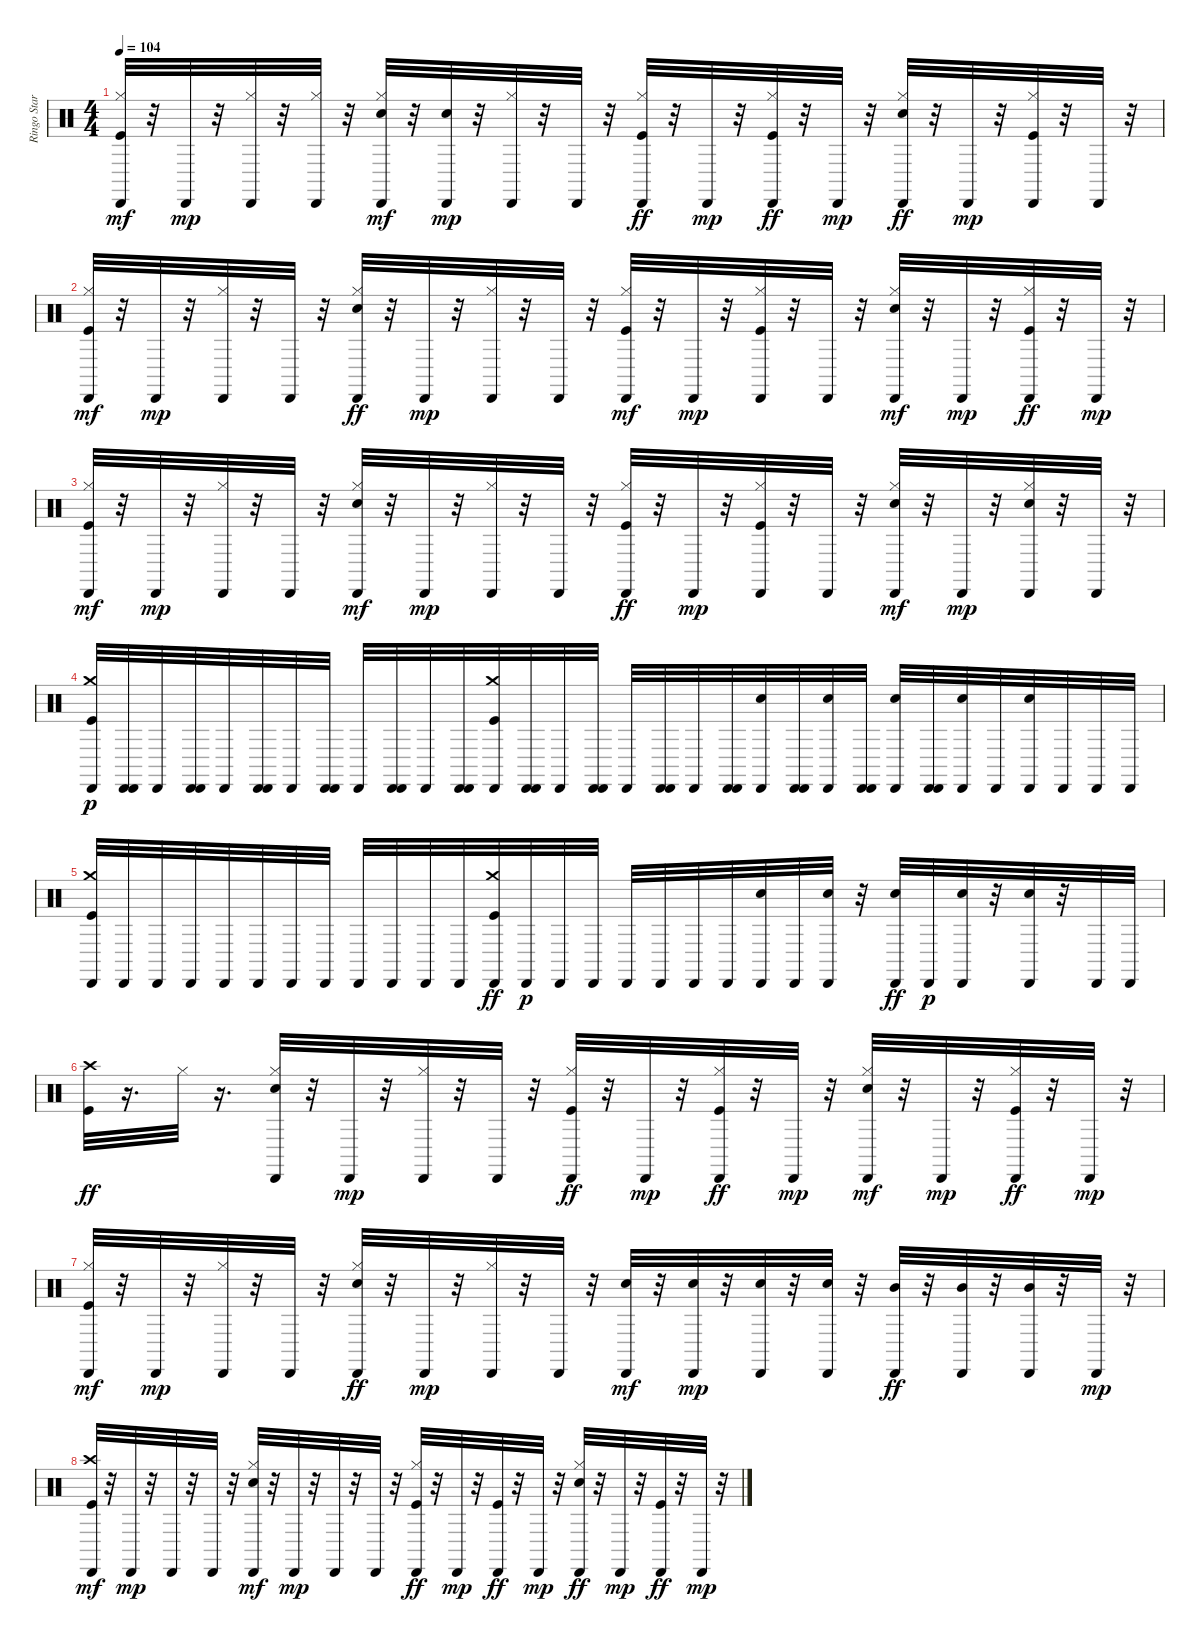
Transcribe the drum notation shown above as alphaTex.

\track ("Ringo Starr - Drums" "Ringo Star") {instrument percussion}
\staff {score}
\articulation defaults
\ts (4 4)
\tempo 104
\clef neutral
\ks c
("Hi-Hat (closed)" "Kick (hit)" "Cabasa (hit)").32{dy mf} r.32 "Cabasa (hit)".32{dy mp} r.32 ("Hi-Hat (closed)" "Cabasa (hit)").32 r.32 ("Hi-Hat (closed)" "Cabasa (hit)").32 r.32 ("Hi-Hat (closed)" "Snare (hit) 2" "Cabasa (hit)").32{dy mf} r.32 ("Snare (hit) 2" "Cabasa (hit)").32{dy mp} r.32 ("Hi-Hat (closed)" "Cabasa (hit)").32 r.32 "Cabasa (hit)".32 r.32 ("Hi-Hat (closed)" "Cabasa (hit)" "Kick (hit)").32{dy ff} r.32 "Cabasa (hit)".32{dy mp} r.32 ("Hi-Hat (closed)" "Cabasa (hit)" "Kick (hit)").32{dy ff} r.32 "Cabasa (hit)".32{dy mp} r.32 ("Hi-Hat (closed)" "Cabasa (hit)" "Snare (hit) 2").32{dy ff} r.32 "Cabasa (hit)".32{dy mp} r.32 ("Hi-Hat (closed)" "Kick (hit)" "Cabasa (hit)").32 r.32 "Cabasa (hit)".32 r.32 |
("Hi-Hat (closed)" "Kick (hit)" "Cabasa (hit)").32{dy mf} r.32 "Cabasa (hit)".32{dy mp} r.32 ("Hi-Hat (closed)" "Cabasa (hit)").32 r.32 "Cabasa (hit)".32 r.32 ("Hi-Hat (closed)" "Cabasa (hit)" "Snare (hit) 2").32{dy ff} r.32 "Cabasa (hit)".32{dy mp} r.32 ("Hi-Hat (closed)" "Cabasa (hit)").32 r.32 "Cabasa (hit)".32 r.32 ("Hi-Hat (closed)" "Kick (hit)" "Cabasa (hit)").32{dy mf} r.32 "Cabasa (hit)".32{dy mp} r.32 ("Hi-Hat (closed)" "Kick (hit)" "Cabasa (hit)").32 r.32 "Cabasa (hit)".32 r.32 ("Hi-Hat (closed)" "Snare (hit) 2" "Cabasa (hit)").32{dy mf} r.32 "Cabasa (hit)".32{dy mp} r.32 ("Hi-Hat (closed)" "Cabasa (hit)" "Kick (hit)").32{dy ff} r.32 "Cabasa (hit)".32{dy mp} r.32 |
("Hi-Hat (closed)" "Kick (hit)" "Cabasa (hit)").32{dy mf} r.32 "Cabasa (hit)".32{dy mp} r.32 ("Hi-Hat (closed)" "Cabasa (hit)").32 r.32 "Cabasa (hit)".32 r.32 ("Hi-Hat (closed)" "Snare (hit) 2" "Cabasa (hit)").32{dy mf} r.32 "Cabasa (hit)".32{dy mp} r.32 ("Hi-Hat (closed)" "Cabasa (hit)").32 r.32 "Cabasa (hit)".32 r.32 ("Hi-Hat (closed)" "Cabasa (hit)" "Kick (hit)").32{dy ff} r.32 "Cabasa (hit)".32{dy mp} r.32 ("Hi-Hat (closed)" "Kick (hit)" "Cabasa (hit)").32 r.32 "Cabasa (hit)".32 r.32 ("Hi-Hat (closed)" "Snare (hit) 2" "Cabasa (hit)").32{dy mf} r.32 "Cabasa (hit)".32{dy mp} r.32 ("Hi-Hat (closed)" "Cabasa (hit)" "Snare (hit) 2").32 r.32 "Cabasa (hit)".32 r.32 |
("Kick (hit)" "Crash medium (hit)" "Cabasa (hit)").32{dy p} ("Cabasa (hit)" "Cabasa (hit)").32 "Cabasa (hit)".32 ("Cabasa (hit)" "Cabasa (hit)").32 "Cabasa (hit)".32 ("Cabasa (hit)" "Cabasa (hit)").32 "Cabasa (hit)".32 ("Cabasa (hit)" "Cabasa (hit)").32 "Cabasa (hit)".32 ("Cabasa (hit)" "Cabasa (hit)").32 "Cabasa (hit)".32 ("Cabasa (hit)" "Cabasa (hit)").32 ("Kick (hit)" "Crash medium (hit)" "Cabasa (hit)").32 ("Cabasa (hit)" "Cabasa (hit)").32 "Cabasa (hit)".32 ("Cabasa (hit)" "Cabasa (hit)").32 "Cabasa (hit)".32 ("Cabasa (hit)" "Cabasa (hit)").32 "Cabasa (hit)".32 ("Cabasa (hit)" "Cabasa (hit)").32 ("Cabasa (hit)" "Snare (hit) 2").32 ("Cabasa (hit)" "Cabasa (hit)").32 ("Cabasa (hit)" "Snare (hit) 2").32 ("Cabasa (hit)" "Cabasa (hit)").32 ("Snare (hit) 2" "Cabasa (hit)").32 ("Cabasa (hit)" "Cabasa (hit)").32 ("Cabasa (hit)" "Snare (hit) 2").32 "Cabasa (hit)".32 ("Snare (hit) 2" "Cabasa (hit)").32 "Cabasa (hit)".32 "Cabasa (hit)".32 "Cabasa (hit)".32 |
("Kick (hit)" "Crash medium (hit)" "Cabasa (hit)").32 "Cabasa (hit)".32 "Cabasa (hit)".32 "Cabasa (hit)".32 "Cabasa (hit)".32 "Cabasa (hit)".32 "Cabasa (hit)".32 "Cabasa (hit)".32 "Cabasa (hit)".32 "Cabasa (hit)".32 "Cabasa (hit)".32 "Cabasa (hit)".32 ("Cabasa (hit)" "Crash medium (hit)" "Kick (hit)").32{dy ff} "Cabasa (hit)".32{dy p} "Cabasa (hit)".32 "Cabasa (hit)".32 "Cabasa (hit)".32 "Cabasa (hit)".32 "Cabasa (hit)".32 "Cabasa (hit)".32 ("Cabasa (hit)" "Snare (hit) 2").32 "Cabasa (hit)".32 ("Snare (hit) 2" "Cabasa (hit)").32 r.32 ("Cabasa (hit)" "Snare (hit) 2").32{dy ff} "Cabasa (hit)".32{dy p} ("Snare (hit) 2" "Cabasa (hit)").32 r.32 ("Cabasa (hit)" "Snare (hit) 2").32 r.32 "Cabasa (hit)".32 "Cabasa (hit)".32 |
("Kick (hit)" "Crash high (hit)").32{dy ff} r.16{d} "Hi-Hat (closed)".32 r.16{d} ("Hi-Hat (closed)" "Cabasa (hit)" "Snare (hit) 2").32 r.32 "Cabasa (hit)".32{dy mp} r.32 ("Hi-Hat (closed)" "Cabasa (hit)").32 r.32 "Cabasa (hit)".32 r.32 ("Hi-Hat (closed)" "Cabasa (hit)" "Kick (hit)").32{dy ff} r.32 "Cabasa (hit)".32{dy mp} r.32 ("Hi-Hat (closed)" "Cabasa (hit)" "Kick (hit)").32{dy ff} r.32 "Cabasa (hit)".32{dy mp} r.32 ("Hi-Hat (closed)" "Snare (hit) 2" "Cabasa (hit)").32{dy mf} r.32 "Cabasa (hit)".32{dy mp} r.32 ("Hi-Hat (closed)" "Cabasa (hit)" "Kick (hit)").32{dy ff} r.32 "Cabasa (hit)".32{dy mp} r.32 |
("Hi-Hat (closed)" "Kick (hit)" "Cabasa (hit)").32{dy mf} r.32 "Cabasa (hit)".32{dy mp} r.32 ("Hi-Hat (closed)" "Cabasa (hit)").32 r.32 "Cabasa (hit)".32 r.32 ("Hi-Hat (closed)" "Cabasa (hit)" "Snare (hit) 2").32{dy ff} r.32 "Cabasa (hit)".32{dy mp} r.32 ("Hi-Hat (closed)" "Cabasa (hit)").32 r.32 "Cabasa (hit)".32 r.32 ("Snare (hit) 2" "Cabasa (hit)").32{dy mf} r.32 ("Cabasa (hit)" "Snare (hit) 2").32{dy mp} r.32 ("Snare (hit) 2" "Cabasa (hit)").32 r.32 ("Cabasa (hit)" "Snare (hit) 2").32 r.32 ("Cabasa (hit)" "Mid Tom (hit)").32{dy ff} r.32 ("Cabasa (hit)" "Mid Tom (hit)").32 r.32 ("Cabasa (hit)" "Mid Tom (hit)").32 r.32 "Cabasa (hit)".32{dy mp} r.32 |
("Kick (hit)" "Cabasa (hit)" "Crash high (hit)").32{dy mf} r.32 "Cabasa (hit)".32{dy mp} r.32 "Cabasa (hit)".32 r.32 "Cabasa (hit)".32 r.32 ("Hi-Hat (closed)" "Snare (hit) 2" "Cabasa (hit)").32{dy mf} r.32 "Cabasa (hit)".32{dy mp} r.32 "Cabasa (hit)".32 r.32 "Cabasa (hit)".32 r.32 ("Hi-Hat (closed)" "Cabasa (hit)" "Kick (hit)").32{dy ff} r.32 "Cabasa (hit)".32{dy mp} r.32 ("Cabasa (hit)" "Kick (hit)").32{dy ff} r.32 "Cabasa (hit)".32{dy mp} r.32 ("Hi-Hat (closed)" "Cabasa (hit)" "Snare (hit) 2").32{dy ff} r.32 "Cabasa (hit)".32{dy mp} r.32 ("Cabasa (hit)" "Kick (hit)").32{dy ff} r.32 "Cabasa (hit)".32{dy mp} r.32
